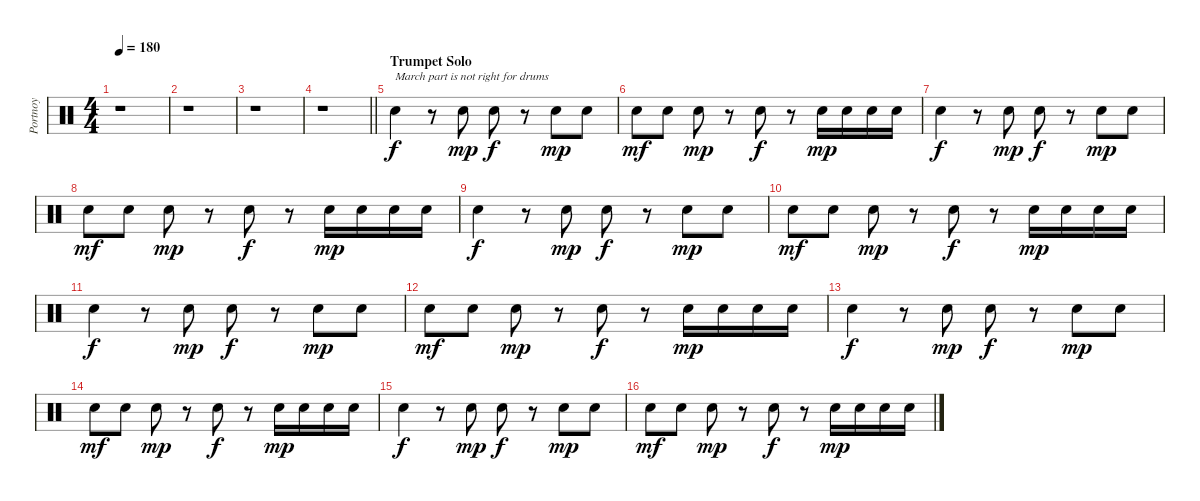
\track ("Portnoy" "Portnoy") {instrument percussion}
\staff {score}
\articulation defaults
\ts (4 4)
\tempo 180
\clef neutral
\ks c
r.1{dy f} |
r.1 |
r.1 |
\barLineRight lightlight
r.1 |
\section ("" "Trumpet Solo")
"Electric Snare (hit)".4{txt "March part is not right for drums"} r.8 "Electric Snare (hit)".8{dy mp} "Electric Snare (hit)".8{dy f} r.8 "Electric Snare (hit)".8{dy mp} "Electric Snare (hit)".8 |
"Electric Snare (hit)".8{dy mf} "Electric Snare (hit)".8 "Electric Snare (hit)".8{dy mp} r.8 "Electric Snare (hit)".8{dy f} r.8 "Electric Snare (hit)".16{dy mp} "Electric Snare (hit)".16 "Electric Snare (hit)".16 "Electric Snare (hit)".16 |
"Electric Snare (hit)".4{dy f} r.8 "Electric Snare (hit)".8{dy mp} "Electric Snare (hit)".8{dy f} r.8 "Electric Snare (hit)".8{dy mp} "Electric Snare (hit)".8 |
"Electric Snare (hit)".8{dy mf} "Electric Snare (hit)".8 "Electric Snare (hit)".8{dy mp} r.8 "Electric Snare (hit)".8{dy f} r.8 "Electric Snare (hit)".16{dy mp} "Electric Snare (hit)".16 "Electric Snare (hit)".16 "Electric Snare (hit)".16 |
"Electric Snare (hit)".4{dy f} r.8 "Electric Snare (hit)".8{dy mp} "Electric Snare (hit)".8{dy f} r.8 "Electric Snare (hit)".8{dy mp} "Electric Snare (hit)".8 |
"Electric Snare (hit)".8{dy mf} "Electric Snare (hit)".8 "Electric Snare (hit)".8{dy mp} r.8 "Electric Snare (hit)".8{dy f} r.8 "Electric Snare (hit)".16{dy mp} "Electric Snare (hit)".16 "Electric Snare (hit)".16 "Electric Snare (hit)".16 |
"Electric Snare (hit)".4{dy f} r.8 "Electric Snare (hit)".8{dy mp} "Electric Snare (hit)".8{dy f} r.8 "Electric Snare (hit)".8{dy mp} "Electric Snare (hit)".8 |
"Electric Snare (hit)".8{dy mf} "Electric Snare (hit)".8 "Electric Snare (hit)".8{dy mp} r.8 "Electric Snare (hit)".8{dy f} r.8 "Electric Snare (hit)".16{dy mp} "Electric Snare (hit)".16 "Electric Snare (hit)".16 "Electric Snare (hit)".16 |
"Electric Snare (hit)".4{dy f} r.8 "Electric Snare (hit)".8{dy mp} "Electric Snare (hit)".8{dy f} r.8 "Electric Snare (hit)".8{dy mp} "Electric Snare (hit)".8 |
"Electric Snare (hit)".8{dy mf} "Electric Snare (hit)".8 "Electric Snare (hit)".8{dy mp} r.8 "Electric Snare (hit)".8{dy f} r.8 "Electric Snare (hit)".16{dy mp} "Electric Snare (hit)".16 "Electric Snare (hit)".16 "Electric Snare (hit)".16 |
"Electric Snare (hit)".4{dy f} r.8 "Electric Snare (hit)".8{dy mp} "Electric Snare (hit)".8{dy f} r.8 "Electric Snare (hit)".8{dy mp} "Electric Snare (hit)".8 |
"Electric Snare (hit)".8{dy mf} "Electric Snare (hit)".8 "Electric Snare (hit)".8{dy mp} r.8 "Electric Snare (hit)".8{dy f} r.8 "Electric Snare (hit)".16{dy mp} "Electric Snare (hit)".16 "Electric Snare (hit)".16 "Electric Snare (hit)".16
